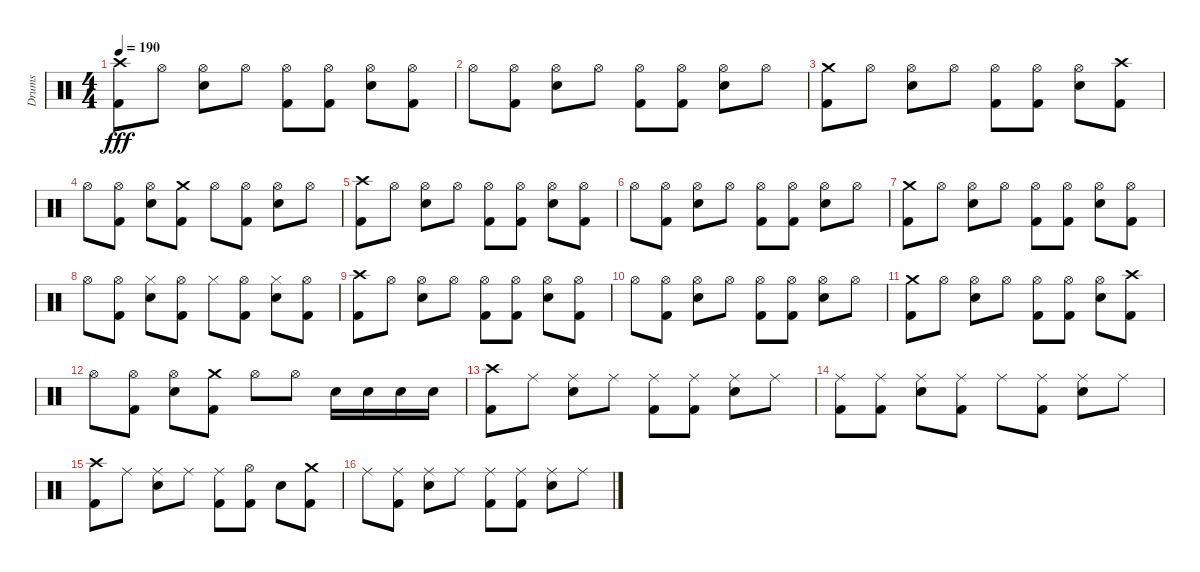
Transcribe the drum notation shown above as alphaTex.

\track ("Drums" "Drums") {instrument percussion}
\staff {score}
\articulation defaults
\ts (4 4)
\tempo 190
\clef neutral
\ks c
("Crash high (hit)" "Kick (hit) 2").8{dy fff} "Hi-Hat (open)".8 ("Hi-Hat (open)" "Electric Snare (hit)").8 "Hi-Hat (open)".8 ("Hi-Hat (open)" "Kick (hit) 2").8 ("Hi-Hat (open)" "Kick (hit) 2").8 ("Hi-Hat (open)" "Electric Snare (hit)").8 ("Hi-Hat (open)" "Kick (hit) 2").8 |
"Hi-Hat (open)".8 ("Hi-Hat (open)" "Kick (hit) 2").8 ("Hi-Hat (open)" "Electric Snare (hit)").8 "Hi-Hat (open)".8 ("Hi-Hat (open)" "Kick (hit) 2").8 ("Hi-Hat (open)" "Kick (hit) 2").8 ("Hi-Hat (open)" "Electric Snare (hit)").8 "Hi-Hat (open)".8 |
("Crash medium (hit)" "Kick (hit) 2").8 "Hi-Hat (open)".8 ("Hi-Hat (open)" "Electric Snare (hit)").8 "Hi-Hat (open)".8 ("Hi-Hat (open)" "Kick (hit) 2").8 ("Hi-Hat (open)" "Kick (hit) 2").8 ("Hi-Hat (open)" "Electric Snare (hit)").8 ("Crash high (hit)" "Kick (hit) 2").8 |
"Hi-Hat (open)".8 ("Hi-Hat (open)" "Kick (hit) 2").8 ("Hi-Hat (open)" "Electric Snare (hit)").8 ("Crash medium (hit)" "Kick (hit) 2").8 "Hi-Hat (open)".8 ("Hi-Hat (open)" "Kick (hit) 2").8 ("Hi-Hat (open)" "Electric Snare (hit)").8 "Hi-Hat (open)".8 |
("Crash high (hit)" "Kick (hit) 2").8 "Hi-Hat (open)".8 ("Hi-Hat (open)" "Electric Snare (hit)").8 "Hi-Hat (open)".8 ("Hi-Hat (open)" "Kick (hit) 2").8 ("Hi-Hat (open)" "Kick (hit) 2").8 ("Hi-Hat (open)" "Electric Snare (hit)").8 ("Hi-Hat (open)" "Kick (hit) 2").8 |
"Hi-Hat (open)".8 ("Hi-Hat (open)" "Kick (hit) 2").8 ("Hi-Hat (open)" "Electric Snare (hit)").8 "Hi-Hat (open)".8 ("Hi-Hat (open)" "Kick (hit) 2").8 ("Hi-Hat (open)" "Kick (hit) 2").8 ("Hi-Hat (open)" "Electric Snare (hit)").8 "Hi-Hat (open)".8 |
("Crash medium (hit)" "Kick (hit) 2").8 "Hi-Hat (open)".8 ("Hi-Hat (open)" "Electric Snare (hit)").8 "Hi-Hat (open)".8 ("Hi-Hat (open)" "Kick (hit) 2").8 ("Hi-Hat (open)" "Kick (hit) 2").8 ("Hi-Hat (open)" "Electric Snare (hit)").8 ("Hi-Hat (open)" "Kick (hit) 2").8 |
"Hi-Hat (open)".8 ("Hi-Hat (open)" "Kick (hit) 2").8 ("Hi-Hat (closed)" "Electric Snare (hit)").8 ("Hi-Hat (open)" "Kick (hit) 2").8 "Hi-Hat (closed)".8 ("Hi-Hat (open)" "Kick (hit) 2").8 ("Hi-Hat (closed)" "Electric Snare (hit)").8 ("Hi-Hat (open)" "Kick (hit) 2").8 |
("Crash high (hit)" "Kick (hit) 2").8 "Hi-Hat (open)".8 ("Hi-Hat (open)" "Electric Snare (hit)").8 "Hi-Hat (open)".8 ("Hi-Hat (open)" "Kick (hit) 2").8 ("Hi-Hat (open)" "Kick (hit) 2").8 ("Hi-Hat (open)" "Electric Snare (hit)").8 ("Hi-Hat (open)" "Kick (hit) 2").8 |
"Hi-Hat (open)".8 ("Hi-Hat (open)" "Kick (hit) 2").8 ("Hi-Hat (open)" "Electric Snare (hit)").8 "Hi-Hat (open)".8 ("Hi-Hat (open)" "Kick (hit) 2").8 ("Hi-Hat (open)" "Kick (hit) 2").8 ("Hi-Hat (open)" "Electric Snare (hit)").8 "Hi-Hat (open)".8 |
("Crash medium (hit)" "Kick (hit) 2").8 "Hi-Hat (open)".8 ("Hi-Hat (open)" "Electric Snare (hit)").8 "Hi-Hat (open)".8 ("Hi-Hat (open)" "Kick (hit) 2").8 ("Hi-Hat (open)" "Kick (hit) 2").8 ("Hi-Hat (open)" "Electric Snare (hit)").8 ("Crash high (hit)" "Kick (hit) 2").8 |
"Hi-Hat (open)".8 ("Hi-Hat (open)" "Kick (hit) 2").8 ("Hi-Hat (open)" "Electric Snare (hit)").8 ("Crash medium (hit)" "Kick (hit) 2").8 "Hi-Hat (open)".8 "Hi-Hat (open)".8 "Electric Snare (hit)".16 "Electric Snare (hit)".16 "Electric Snare (hit)".16 "Electric Snare (hit)".16 |
("Crash high (hit)" "Kick (hit) 2").8 "Ride (middle)".8 ("Ride (middle)" "Electric Snare (hit)").8 "Ride (middle)".8 ("Ride (middle)" "Kick (hit) 2").8 ("Ride (middle)" "Kick (hit) 2").8 ("Ride (middle)" "Electric Snare (hit)").8 "Ride (middle)".8 |
("Ride (middle)" "Kick (hit) 2").8 ("Ride (middle)" "Kick (hit) 2").8 ("Ride (middle)" "Electric Snare (hit)").8 ("Ride (middle)" "Kick (hit) 2").8 "Ride (middle)".8 ("Ride (middle)" "Kick (hit) 2").8 ("Ride (middle)" "Electric Snare (hit)").8 "Ride (middle)".8 |
("Crash high (hit)" "Kick (hit) 2").8 "Ride (middle)".8 ("Ride (middle)" "Electric Snare (hit)").8 "Ride (middle)".8 ("Ride (middle)" "Kick (hit) 2").8 ("Hi-Hat (open)" "Kick (hit) 2").8 "Electric Snare (hit)".8 ("Crash medium (hit)" "Kick (hit) 2").8 |
"Ride (middle)".8 ("Ride (middle)" "Kick (hit) 2").8 ("Ride (middle)" "Electric Snare (hit)").8 "Ride (middle)".8 ("Ride (middle)" "Kick (hit) 2").8 ("Ride (middle)" "Kick (hit) 2").8 ("Ride (middle)" "Electric Snare (hit)").8 "Ride (middle)".8
